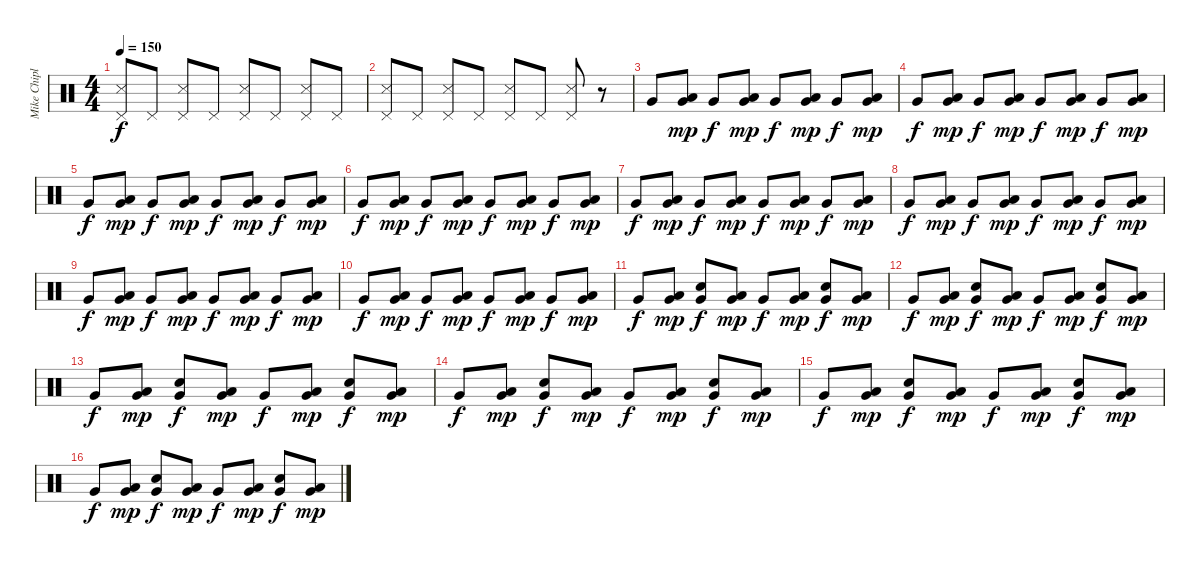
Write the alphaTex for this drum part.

\track ("Mike Chiplin" "Mike Chipl") {instrument percussion}
\staff {score}
\articulation defaults
\ts (4 4)
\tempo 150
\clef neutral
\ks c
("Pedal Hi-Hat (hit)" "Snare (side stick) 3").8{dy f} "Pedal Hi-Hat (hit)".8 ("Pedal Hi-Hat (hit)" "Snare (side stick) 3").8 "Pedal Hi-Hat (hit)".8 ("Pedal Hi-Hat (hit)" "Snare (side stick) 3").8 "Pedal Hi-Hat (hit)".8 ("Pedal Hi-Hat (hit)" "Snare (side stick) 3").8 "Pedal Hi-Hat (hit)".8 |
("Pedal Hi-Hat (hit)" "Snare (side stick) 3").8 "Pedal Hi-Hat (hit)".8 ("Pedal Hi-Hat (hit)" "Snare (side stick) 3").8 "Pedal Hi-Hat (hit)".8 ("Pedal Hi-Hat (hit)" "Snare (side stick) 3").8 "Pedal Hi-Hat (hit)".8 ("Pedal Hi-Hat (hit)" "Snare (side stick) 3").8 r.8 |
"Very Low Tom (hit)".8 ("Low Floor Tom (hit)" "Very Low Tom (hit)").8{dy mp} "Very Low Tom (hit)".8{dy f} ("Low Floor Tom (hit)" "Very Low Tom (hit)").8{dy mp} "Very Low Tom (hit)".8{dy f} ("Low Floor Tom (hit)" "Very Low Tom (hit)").8{dy mp} "Very Low Tom (hit)".8{dy f} ("Low Floor Tom (hit)" "Very Low Tom (hit)").8{dy mp} |
"Very Low Tom (hit)".8{dy f} ("Low Floor Tom (hit)" "Very Low Tom (hit)").8{dy mp} "Very Low Tom (hit)".8{dy f} ("Low Floor Tom (hit)" "Very Low Tom (hit)").8{dy mp} "Very Low Tom (hit)".8{dy f} ("Low Floor Tom (hit)" "Very Low Tom (hit)").8{dy mp} "Very Low Tom (hit)".8{dy f} ("Low Floor Tom (hit)" "Very Low Tom (hit)").8{dy mp} |
"Very Low Tom (hit)".8{dy f} ("Low Floor Tom (hit)" "Very Low Tom (hit)").8{dy mp} "Very Low Tom (hit)".8{dy f} ("Low Floor Tom (hit)" "Very Low Tom (hit)").8{dy mp} "Very Low Tom (hit)".8{dy f} ("Low Floor Tom (hit)" "Very Low Tom (hit)").8{dy mp} "Very Low Tom (hit)".8{dy f} ("Low Floor Tom (hit)" "Very Low Tom (hit)").8{dy mp} |
"Very Low Tom (hit)".8{dy f} ("Low Floor Tom (hit)" "Very Low Tom (hit)").8{dy mp} "Very Low Tom (hit)".8{dy f} ("Low Floor Tom (hit)" "Very Low Tom (hit)").8{dy mp} "Very Low Tom (hit)".8{dy f} ("Low Floor Tom (hit)" "Very Low Tom (hit)").8{dy mp} "Very Low Tom (hit)".8{dy f} ("Low Floor Tom (hit)" "Very Low Tom (hit)").8{dy mp} |
"Very Low Tom (hit)".8{dy f} ("Low Floor Tom (hit)" "Very Low Tom (hit)").8{dy mp} "Very Low Tom (hit)".8{dy f} ("Low Floor Tom (hit)" "Very Low Tom (hit)").8{dy mp} "Very Low Tom (hit)".8{dy f} ("Low Floor Tom (hit)" "Very Low Tom (hit)").8{dy mp} "Very Low Tom (hit)".8{dy f} ("Low Floor Tom (hit)" "Very Low Tom (hit)").8{dy mp} |
"Very Low Tom (hit)".8{dy f} ("Low Floor Tom (hit)" "Very Low Tom (hit)").8{dy mp} "Very Low Tom (hit)".8{dy f} ("Low Floor Tom (hit)" "Very Low Tom (hit)").8{dy mp} "Very Low Tom (hit)".8{dy f} ("Low Floor Tom (hit)" "Very Low Tom (hit)").8{dy mp} "Very Low Tom (hit)".8{dy f} ("Low Floor Tom (hit)" "Very Low Tom (hit)").8{dy mp} |
"Very Low Tom (hit)".8{dy f} ("Low Floor Tom (hit)" "Very Low Tom (hit)").8{dy mp} "Very Low Tom (hit)".8{dy f} ("Low Floor Tom (hit)" "Very Low Tom (hit)").8{dy mp} "Very Low Tom (hit)".8{dy f} ("Low Floor Tom (hit)" "Very Low Tom (hit)").8{dy mp} "Very Low Tom (hit)".8{dy f} ("Low Floor Tom (hit)" "Very Low Tom (hit)").8{dy mp} |
"Very Low Tom (hit)".8{dy f} ("Low Floor Tom (hit)" "Very Low Tom (hit)").8{dy mp} "Very Low Tom (hit)".8{dy f} ("Low Floor Tom (hit)" "Very Low Tom (hit)").8{dy mp} "Very Low Tom (hit)".8{dy f} ("Low Floor Tom (hit)" "Very Low Tom (hit)").8{dy mp} "Very Low Tom (hit)".8{dy f} ("Low Floor Tom (hit)" "Very Low Tom (hit)").8{dy mp} |
"Very Low Tom (hit)".8{dy f} ("Low Floor Tom (hit)" "Very Low Tom (hit)").8{dy mp} ("Very Low Tom (hit)" "Snare (hit) 2").8{dy f} ("Low Floor Tom (hit)" "Very Low Tom (hit)").8{dy mp} "Very Low Tom (hit)".8{dy f} ("Low Floor Tom (hit)" "Very Low Tom (hit)").8{dy mp} ("Very Low Tom (hit)" "Snare (hit) 2").8{dy f} ("Low Floor Tom (hit)" "Very Low Tom (hit)").8{dy mp} |
"Very Low Tom (hit)".8{dy f} ("Low Floor Tom (hit)" "Very Low Tom (hit)").8{dy mp} ("Very Low Tom (hit)" "Snare (hit) 2").8{dy f} ("Low Floor Tom (hit)" "Very Low Tom (hit)").8{dy mp} "Very Low Tom (hit)".8{dy f} ("Low Floor Tom (hit)" "Very Low Tom (hit)").8{dy mp} ("Very Low Tom (hit)" "Snare (hit) 2").8{dy f} ("Low Floor Tom (hit)" "Very Low Tom (hit)").8{dy mp} |
"Very Low Tom (hit)".8{dy f} ("Low Floor Tom (hit)" "Very Low Tom (hit)").8{dy mp} ("Very Low Tom (hit)" "Snare (hit) 2").8{dy f} ("Low Floor Tom (hit)" "Very Low Tom (hit)").8{dy mp} "Very Low Tom (hit)".8{dy f} ("Low Floor Tom (hit)" "Very Low Tom (hit)").8{dy mp} ("Very Low Tom (hit)" "Snare (hit) 2").8{dy f} ("Low Floor Tom (hit)" "Very Low Tom (hit)").8{dy mp} |
"Very Low Tom (hit)".8{dy f} ("Low Floor Tom (hit)" "Very Low Tom (hit)").8{dy mp} ("Very Low Tom (hit)" "Snare (hit) 2").8{dy f} ("Low Floor Tom (hit)" "Very Low Tom (hit)").8{dy mp} "Very Low Tom (hit)".8{dy f} ("Low Floor Tom (hit)" "Very Low Tom (hit)").8{dy mp} ("Very Low Tom (hit)" "Snare (hit) 2").8{dy f} ("Low Floor Tom (hit)" "Very Low Tom (hit)").8{dy mp} |
"Very Low Tom (hit)".8{dy f} ("Low Floor Tom (hit)" "Very Low Tom (hit)").8{dy mp} ("Very Low Tom (hit)" "Snare (hit) 2").8{dy f} ("Low Floor Tom (hit)" "Very Low Tom (hit)").8{dy mp} "Very Low Tom (hit)".8{dy f} ("Low Floor Tom (hit)" "Very Low Tom (hit)").8{dy mp} ("Very Low Tom (hit)" "Snare (hit) 2").8{dy f} ("Low Floor Tom (hit)" "Very Low Tom (hit)").8{dy mp} |
"Very Low Tom (hit)".8{dy f} ("Low Floor Tom (hit)" "Very Low Tom (hit)").8{dy mp} ("Very Low Tom (hit)" "Snare (hit) 2").8{dy f} ("Low Floor Tom (hit)" "Very Low Tom (hit)").8{dy mp} "Very Low Tom (hit)".8{dy f} ("Low Floor Tom (hit)" "Very Low Tom (hit)").8{dy mp} ("Very Low Tom (hit)" "Snare (hit) 2").8{dy f} ("Low Floor Tom (hit)" "Very Low Tom (hit)").8{dy mp}
